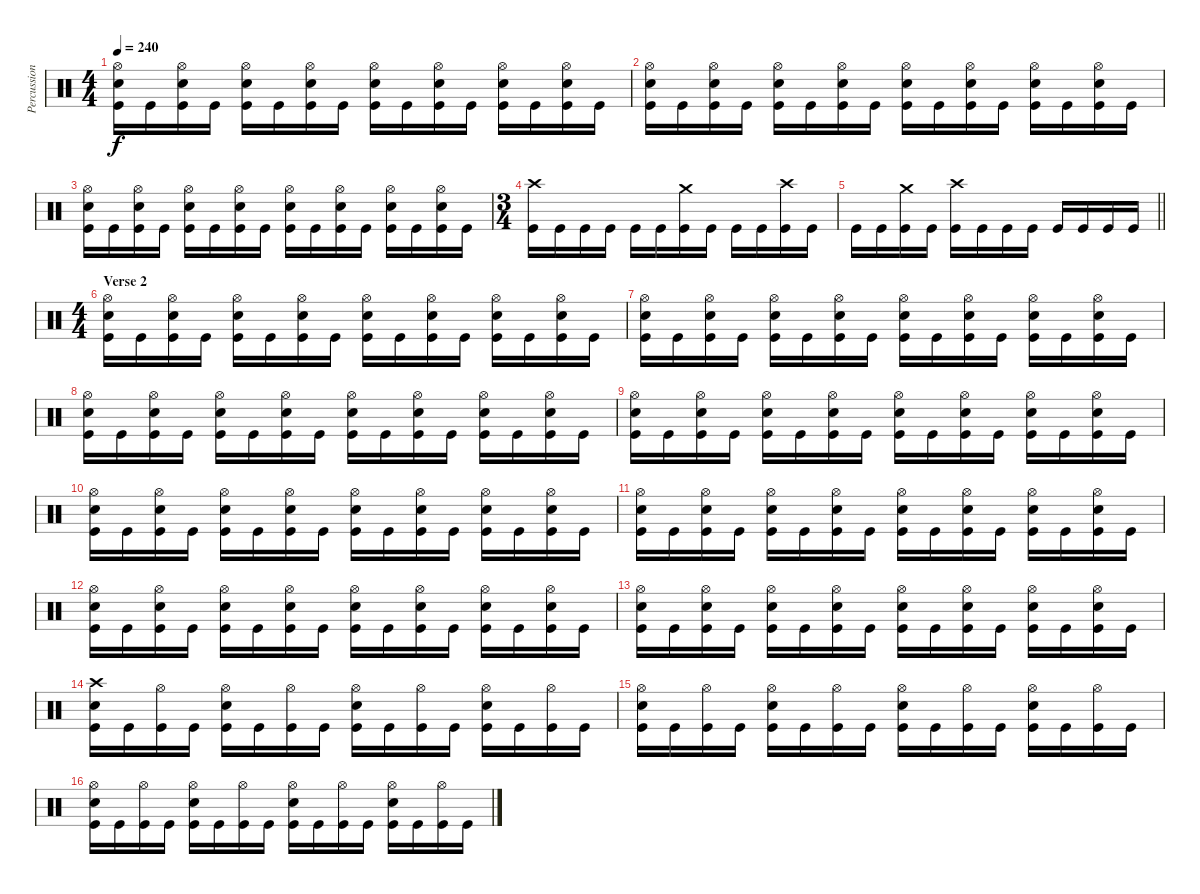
\track ("Percussion" "Percussion") {instrument percussion}
\staff {score}
\articulation defaults
\ts (4 4)
\tempo 240
\clef neutral
\ks c
("Hi-Hat (open)" "Snare (hit) 2" "Kick (hit)").16{dy f} "Kick (hit)".16 ("Hi-Hat (open)" "Snare (hit) 2" "Kick (hit)").16 "Kick (hit)".16 ("Hi-Hat (open)" "Snare (hit) 2" "Kick (hit)").16 "Kick (hit)".16 ("Hi-Hat (open)" "Snare (hit) 2" "Kick (hit)").16 "Kick (hit)".16 ("Hi-Hat (open)" "Snare (hit) 2" "Kick (hit)").16 "Kick (hit)".16 ("Hi-Hat (open)" "Snare (hit) 2" "Kick (hit)").16 "Kick (hit)".16 ("Hi-Hat (open)" "Snare (hit) 2" "Kick (hit)").16 "Kick (hit)".16 ("Hi-Hat (open)" "Snare (hit) 2" "Kick (hit)").16 "Kick (hit)".16 |
("Hi-Hat (open)" "Snare (hit) 2" "Kick (hit)").16 "Kick (hit)".16 ("Hi-Hat (open)" "Snare (hit) 2" "Kick (hit)").16 "Kick (hit)".16 ("Hi-Hat (open)" "Snare (hit) 2" "Kick (hit)").16 "Kick (hit)".16 ("Hi-Hat (open)" "Snare (hit) 2" "Kick (hit)").16 "Kick (hit)".16 ("Hi-Hat (open)" "Snare (hit) 2" "Kick (hit)").16 "Kick (hit)".16 ("Hi-Hat (open)" "Snare (hit) 2" "Kick (hit)").16 "Kick (hit)".16 ("Hi-Hat (open)" "Snare (hit) 2" "Kick (hit)").16 "Kick (hit)".16 ("Hi-Hat (open)" "Snare (hit) 2" "Kick (hit)").16 "Kick (hit)".16 |
("Hi-Hat (open)" "Snare (hit) 2" "Kick (hit)").16 "Kick (hit)".16 ("Hi-Hat (open)" "Snare (hit) 2" "Kick (hit)").16 "Kick (hit)".16 ("Hi-Hat (open)" "Snare (hit) 2" "Kick (hit)").16 "Kick (hit)".16 ("Hi-Hat (open)" "Snare (hit) 2" "Kick (hit)").16 "Kick (hit)".16 ("Hi-Hat (open)" "Snare (hit) 2" "Kick (hit)").16 "Kick (hit)".16 ("Hi-Hat (open)" "Snare (hit) 2" "Kick (hit)").16 "Kick (hit)".16 ("Hi-Hat (open)" "Snare (hit) 2" "Kick (hit)").16 "Kick (hit)".16 ("Hi-Hat (open)" "Snare (hit) 2" "Kick (hit)").16 "Kick (hit)".16 |
\ts (3 4)
("Crash high (hit)" "Kick (hit)").16 "Kick (hit)".16 "Kick (hit)".16 "Kick (hit)".16 "Kick (hit)".16 "Kick (hit)".16 ("Crash medium (hit)" "Kick (hit)").16 "Kick (hit)".16 "Kick (hit)".16 "Kick (hit)".16 ("Crash high (hit)" "Kick (hit)").16 "Kick (hit)".16 |
\barLineRight lightlight "Kick (hit)".16 "Kick (hit)".16
("Crash medium (hit)" "Kick (hit)").16 "Kick (hit)".16 ("Crash high (hit)" "Kick (hit)").16 "Kick (hit)".16 "Kick (hit)".16 "Kick (hit)".16 "Kick (hit)".16 "Kick (hit)".16 "Kick (hit)".16 "Kick (hit)".16 |
\ts (4 4)
\section ("" "Verse 2")
("Hi-Hat (open)" "Snare (hit) 2" "Kick (hit)").16 "Kick (hit)".16 ("Hi-Hat (open)" "Snare (hit) 2" "Kick (hit)").16 "Kick (hit)".16 ("Hi-Hat (open)" "Snare (hit) 2" "Kick (hit)").16 "Kick (hit)".16 ("Hi-Hat (open)" "Snare (hit) 2" "Kick (hit)").16 "Kick (hit)".16 ("Hi-Hat (open)" "Snare (hit) 2" "Kick (hit)").16 "Kick (hit)".16 ("Hi-Hat (open)" "Snare (hit) 2" "Kick (hit)").16 "Kick (hit)".16 ("Hi-Hat (open)" "Snare (hit) 2" "Kick (hit)").16 "Kick (hit)".16 ("Hi-Hat (open)" "Snare (hit) 2" "Kick (hit)").16 "Kick (hit)".16 |
("Hi-Hat (open)" "Snare (hit) 2" "Kick (hit)").16 "Kick (hit)".16 ("Hi-Hat (open)" "Snare (hit) 2" "Kick (hit)").16 "Kick (hit)".16 ("Hi-Hat (open)" "Snare (hit) 2" "Kick (hit)").16 "Kick (hit)".16 ("Hi-Hat (open)" "Snare (hit) 2" "Kick (hit)").16 "Kick (hit)".16 ("Hi-Hat (open)" "Snare (hit) 2" "Kick (hit)").16 "Kick (hit)".16 ("Hi-Hat (open)" "Snare (hit) 2" "Kick (hit)").16 "Kick (hit)".16 ("Hi-Hat (open)" "Snare (hit) 2" "Kick (hit)").16 "Kick (hit)".16 ("Hi-Hat (open)" "Snare (hit) 2" "Kick (hit)").16 "Kick (hit)".16 |
("Hi-Hat (open)" "Snare (hit) 2" "Kick (hit)").16 "Kick (hit)".16 ("Hi-Hat (open)" "Snare (hit) 2" "Kick (hit)").16 "Kick (hit)".16 ("Hi-Hat (open)" "Snare (hit) 2" "Kick (hit)").16 "Kick (hit)".16 ("Hi-Hat (open)" "Snare (hit) 2" "Kick (hit)").16 "Kick (hit)".16 ("Hi-Hat (open)" "Snare (hit) 2" "Kick (hit)").16 "Kick (hit)".16 ("Hi-Hat (open)" "Snare (hit) 2" "Kick (hit)").16 "Kick (hit)".16 ("Hi-Hat (open)" "Snare (hit) 2" "Kick (hit)").16 "Kick (hit)".16 ("Hi-Hat (open)" "Snare (hit) 2" "Kick (hit)").16 "Kick (hit)".16 |
("Hi-Hat (open)" "Snare (hit) 2" "Kick (hit)").16 "Kick (hit)".16 ("Hi-Hat (open)" "Snare (hit) 2" "Kick (hit)").16 "Kick (hit)".16 ("Hi-Hat (open)" "Snare (hit) 2" "Kick (hit)").16 "Kick (hit)".16 ("Hi-Hat (open)" "Snare (hit) 2" "Kick (hit)").16 "Kick (hit)".16 ("Hi-Hat (open)" "Snare (hit) 2" "Kick (hit)").16 "Kick (hit)".16 ("Hi-Hat (open)" "Snare (hit) 2" "Kick (hit)").16 "Kick (hit)".16 ("Hi-Hat (open)" "Snare (hit) 2" "Kick (hit)").16 "Kick (hit)".16 ("Hi-Hat (open)" "Snare (hit) 2" "Kick (hit)").16 "Kick (hit)".16 |
("Hi-Hat (open)" "Snare (hit) 2" "Kick (hit)").16 "Kick (hit)".16 ("Hi-Hat (open)" "Snare (hit) 2" "Kick (hit)").16 "Kick (hit)".16 ("Hi-Hat (open)" "Snare (hit) 2" "Kick (hit)").16 "Kick (hit)".16 ("Hi-Hat (open)" "Snare (hit) 2" "Kick (hit)").16 "Kick (hit)".16 ("Hi-Hat (open)" "Snare (hit) 2" "Kick (hit)").16 "Kick (hit)".16 ("Hi-Hat (open)" "Snare (hit) 2" "Kick (hit)").16 "Kick (hit)".16 ("Hi-Hat (open)" "Snare (hit) 2" "Kick (hit)").16 "Kick (hit)".16 ("Hi-Hat (open)" "Snare (hit) 2" "Kick (hit)").16 "Kick (hit)".16 |
("Hi-Hat (open)" "Snare (hit) 2" "Kick (hit)").16 "Kick (hit)".16 ("Hi-Hat (open)" "Snare (hit) 2" "Kick (hit)").16 "Kick (hit)".16 ("Hi-Hat (open)" "Snare (hit) 2" "Kick (hit)").16 "Kick (hit)".16 ("Hi-Hat (open)" "Snare (hit) 2" "Kick (hit)").16 "Kick (hit)".16 ("Hi-Hat (open)" "Snare (hit) 2" "Kick (hit)").16 "Kick (hit)".16 ("Hi-Hat (open)" "Snare (hit) 2" "Kick (hit)").16 "Kick (hit)".16 ("Hi-Hat (open)" "Snare (hit) 2" "Kick (hit)").16 "Kick (hit)".16 ("Hi-Hat (open)" "Snare (hit) 2" "Kick (hit)").16 "Kick (hit)".16 |
("Hi-Hat (open)" "Snare (hit) 2" "Kick (hit)").16 "Kick (hit)".16 ("Hi-Hat (open)" "Snare (hit) 2" "Kick (hit)").16 "Kick (hit)".16 ("Hi-Hat (open)" "Snare (hit) 2" "Kick (hit)").16 "Kick (hit)".16 ("Hi-Hat (open)" "Snare (hit) 2" "Kick (hit)").16 "Kick (hit)".16 ("Hi-Hat (open)" "Snare (hit) 2" "Kick (hit)").16 "Kick (hit)".16 ("Hi-Hat (open)" "Snare (hit) 2" "Kick (hit)").16 "Kick (hit)".16 ("Hi-Hat (open)" "Snare (hit) 2" "Kick (hit)").16 "Kick (hit)".16 ("Hi-Hat (open)" "Snare (hit) 2" "Kick (hit)").16 "Kick (hit)".16 |
("Hi-Hat (open)" "Snare (hit) 2" "Kick (hit)").16 "Kick (hit)".16 ("Hi-Hat (open)" "Snare (hit) 2" "Kick (hit)").16 "Kick (hit)".16 ("Hi-Hat (open)" "Snare (hit) 2" "Kick (hit)").16 "Kick (hit)".16 ("Hi-Hat (open)" "Snare (hit) 2" "Kick (hit)").16 "Kick (hit)".16 ("Hi-Hat (open)" "Snare (hit) 2" "Kick (hit)").16 "Kick (hit)".16 ("Hi-Hat (open)" "Snare (hit) 2" "Kick (hit)").16 "Kick (hit)".16 ("Hi-Hat (open)" "Snare (hit) 2" "Kick (hit)").16 "Kick (hit)".16 ("Hi-Hat (open)" "Snare (hit) 2" "Kick (hit)").16 "Kick (hit)".16 |
("Crash high (hit)" "Snare (hit) 2" "Kick (hit)").16 "Kick (hit)".16 ("Hi-Hat (open)" "Kick (hit)").16 "Kick (hit)".16 ("Hi-Hat (open)" "Snare (hit) 2" "Kick (hit)").16 "Kick (hit)".16 ("Hi-Hat (open)" "Kick (hit)").16 "Kick (hit)".16 ("Hi-Hat (open)" "Snare (hit) 2" "Kick (hit)").16 "Kick (hit)".16 ("Hi-Hat (open)" "Kick (hit)").16 "Kick (hit)".16 ("Hi-Hat (open)" "Snare (hit) 2" "Kick (hit)").16 "Kick (hit)".16 ("Hi-Hat (open)" "Kick (hit)").16 "Kick (hit)".16 |
("Hi-Hat (open)" "Snare (hit) 2" "Kick (hit)").16 "Kick (hit)".16 ("Hi-Hat (open)" "Kick (hit)").16 "Kick (hit)".16 ("Hi-Hat (open)" "Snare (hit) 2" "Kick (hit)").16 "Kick (hit)".16 ("Hi-Hat (open)" "Kick (hit)").16 "Kick (hit)".16 ("Hi-Hat (open)" "Snare (hit) 2" "Kick (hit)").16 "Kick (hit)".16 ("Hi-Hat (open)" "Kick (hit)").16 "Kick (hit)".16 ("Hi-Hat (open)" "Snare (hit) 2" "Kick (hit)").16 "Kick (hit)".16 ("Hi-Hat (open)" "Kick (hit)").16 "Kick (hit)".16 |
("Hi-Hat (open)" "Snare (hit) 2" "Kick (hit)").16 "Kick (hit)".16 ("Hi-Hat (open)" "Kick (hit)").16 "Kick (hit)".16 ("Hi-Hat (open)" "Snare (hit) 2" "Kick (hit)").16 "Kick (hit)".16 ("Hi-Hat (open)" "Kick (hit)").16 "Kick (hit)".16 ("Hi-Hat (open)" "Snare (hit) 2" "Kick (hit)").16 "Kick (hit)".16 ("Hi-Hat (open)" "Kick (hit)").16 "Kick (hit)".16 ("Hi-Hat (open)" "Snare (hit) 2" "Kick (hit)").16 "Kick (hit)".16 ("Hi-Hat (open)" "Kick (hit)").16 "Kick (hit)".16
